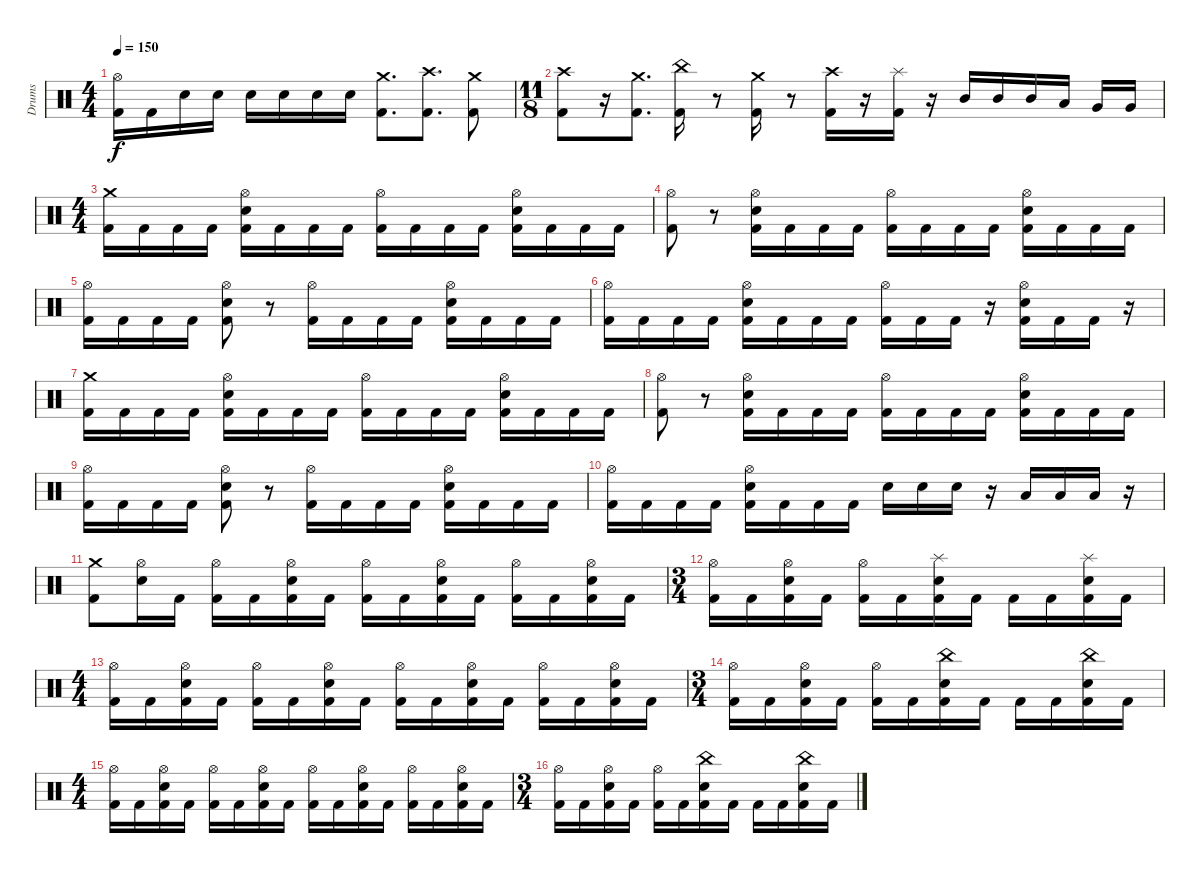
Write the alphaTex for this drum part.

\track ("Drums" "Drums") {instrument percussion}
\staff {score}
\articulation defaults
\ts (4 4)
\tempo 150
\clef neutral
\ks c
("Hi-Hat (open)" "Kick (hit) 2").16{dy f} "Kick (hit) 2".16 "Electric Snare (hit)".16 "Electric Snare (hit)".16 "Electric Snare (hit)".16 "Electric Snare (hit)".16 "Electric Snare (hit)".16 "Electric Snare (hit)".16 ("Crash medium (hit)" "Kick (hit) 2").8{d} ("Crash high (hit)" "Kick (hit) 2").8{d} ("Crash medium (hit)" "Kick (hit) 2").8 |
\ts (11 8)
("Crash high (hit)" "Kick (hit) 2").8 r.16 ("Crash medium (hit)" "Kick (hit) 2").8{d} ("China (hit)" "Kick (hit) 2").16 r.8 ("Crash medium (hit)" "Kick (hit) 2").16 r.8 ("Crash high (hit)" "Kick (hit) 2").16 r.16 ("Splash (hit)" "Kick (hit) 2").16 r.16 "Mid Tom (hit)".16 "Mid Tom (hit)".16 "Mid Tom (hit)".16 "Low Tom (hit)".16 "Very Low Tom (hit)".16 "Very Low Tom (hit)".16 |
\ts (4 4)
("Crash medium (hit)" "Kick (hit) 2").16 "Kick (hit) 2".16 "Kick (hit) 2".16 "Kick (hit) 2".16 ("Hi-Hat (open)" "Electric Snare (hit)" "Kick (hit) 2").16 "Kick (hit) 2".16 "Kick (hit) 2".16 "Kick (hit) 2".16 ("Hi-Hat (open)" "Kick (hit) 2").16 "Kick (hit) 2".16 "Kick (hit) 2".16 "Kick (hit) 2".16 ("Hi-Hat (open)" "Electric Snare (hit)" "Kick (hit) 2").16 "Kick (hit) 2".16 "Kick (hit) 2".16 "Kick (hit) 2".16 |
("Hi-Hat (open)" "Kick (hit) 2").8 r.8 ("Electric Snare (hit)" "Hi-Hat (open)" "Kick (hit) 2").16 "Kick (hit) 2".16 "Kick (hit) 2".16 "Kick (hit) 2".16 ("Hi-Hat (open)" "Kick (hit) 2").16 "Kick (hit) 2".16 "Kick (hit) 2".16 "Kick (hit) 2".16 ("Electric Snare (hit)" "Hi-Hat (open)" "Kick (hit) 2").16 "Kick (hit) 2".16 "Kick (hit) 2".16 "Kick (hit) 2".16 |
("Hi-Hat (open)" "Kick (hit) 2").16 "Kick (hit) 2".16 "Kick (hit) 2".16 "Kick (hit) 2".16 ("Electric Snare (hit)" "Hi-Hat (open)" "Kick (hit) 2").8 r.8 ("Hi-Hat (open)" "Kick (hit) 2").16 "Kick (hit) 2".16 "Kick (hit) 2".16 "Kick (hit) 2".16 ("Hi-Hat (open)" "Electric Snare (hit)" "Kick (hit) 2").16 "Kick (hit) 2".16 "Kick (hit) 2".16 "Kick (hit) 2".16 |
("Hi-Hat (open)" "Kick (hit) 2").16 "Kick (hit) 2".16 "Kick (hit) 2".16 "Kick (hit) 2".16 ("Hi-Hat (open)" "Electric Snare (hit)" "Kick (hit) 2").16 "Kick (hit) 2".16 "Kick (hit) 2".16 "Kick (hit) 2".16 ("Hi-Hat (open)" "Kick (hit) 2").16 "Kick (hit) 2".16 "Kick (hit) 2".16 r.16 ("Electric Snare (hit)" "Hi-Hat (open)" "Kick (hit) 2").16 "Kick (hit) 2".16 "Kick (hit) 2".16 r.16 |
("Crash medium (hit)" "Kick (hit) 2").16 "Kick (hit) 2".16 "Kick (hit) 2".16 "Kick (hit) 2".16 ("Hi-Hat (open)" "Electric Snare (hit)" "Kick (hit) 2").16 "Kick (hit) 2".16 "Kick (hit) 2".16 "Kick (hit) 2".16 ("Hi-Hat (open)" "Kick (hit) 2").16 "Kick (hit) 2".16 "Kick (hit) 2".16 "Kick (hit) 2".16 ("Hi-Hat (open)" "Electric Snare (hit)" "Kick (hit) 2").16 "Kick (hit) 2".16 "Kick (hit) 2".16 "Kick (hit) 2".16 |
("Hi-Hat (open)" "Kick (hit) 2").8 r.8 ("Electric Snare (hit)" "Hi-Hat (open)" "Kick (hit) 2").16 "Kick (hit) 2".16 "Kick (hit) 2".16 "Kick (hit) 2".16 ("Hi-Hat (open)" "Kick (hit) 2").16 "Kick (hit) 2".16 "Kick (hit) 2".16 "Kick (hit) 2".16 ("Electric Snare (hit)" "Hi-Hat (open)" "Kick (hit) 2").16 "Kick (hit) 2".16 "Kick (hit) 2".16 "Kick (hit) 2".16 |
("Hi-Hat (open)" "Kick (hit) 2").16 "Kick (hit) 2".16 "Kick (hit) 2".16 "Kick (hit) 2".16 ("Electric Snare (hit)" "Hi-Hat (open)" "Kick (hit) 2").8 r.8 ("Hi-Hat (open)" "Kick (hit) 2").16 "Kick (hit) 2".16 "Kick (hit) 2".16 "Kick (hit) 2".16 ("Hi-Hat (open)" "Electric Snare (hit)" "Kick (hit) 2").16 "Kick (hit) 2".16 "Kick (hit) 2".16 "Kick (hit) 2".16 |
("Hi-Hat (open)" "Kick (hit) 2").16 "Kick (hit) 2".16 "Kick (hit) 2".16 "Kick (hit) 2".16 ("Hi-Hat (open)" "Electric Snare (hit)" "Kick (hit) 2").16 "Kick (hit) 2".16 "Kick (hit) 2".16 "Kick (hit) 2".16 "Electric Snare (hit)".16 "Electric Snare (hit)".16 "Electric Snare (hit)".16 r.16 "Low Tom (hit)".16 "Low Tom (hit)".16 "Low Tom (hit)".16 r.16 |
("Crash medium (hit)" "Kick (hit) 2").8 ("Hi-Hat (open)" "Electric Snare (hit)").16 "Kick (hit) 2".16 ("Hi-Hat (open)" "Kick (hit) 2").16 "Kick (hit) 2".16 ("Hi-Hat (open)" "Electric Snare (hit)" "Kick (hit) 2").16 "Kick (hit) 2".16 ("Hi-Hat (open)" "Kick (hit) 2").16 "Kick (hit) 2".16 ("Hi-Hat (open)" "Electric Snare (hit)" "Kick (hit) 2").16 "Kick (hit) 2".16 ("Hi-Hat (open)" "Kick (hit) 2").16 "Kick (hit) 2".16 ("Hi-Hat (open)" "Electric Snare (hit)" "Kick (hit) 2").16 "Kick (hit) 2".16 |
\ts (3 4)
("Hi-Hat (open)" "Kick (hit) 2").16 "Kick (hit) 2".16 ("Hi-Hat (open)" "Electric Snare (hit)" "Kick (hit) 2").16 "Kick (hit) 2".16 ("Hi-Hat (open)" "Kick (hit) 2").16 "Kick (hit) 2".16 ("Splash (hit)" "Electric Snare (hit)" "Kick (hit) 2").16 "Kick (hit) 2".16 "Kick (hit) 2".16 "Kick (hit) 2".16 ("Splash (hit)" "Electric Snare (hit)" "Kick (hit) 2").16 "Kick (hit) 2".16 |
\ts (4 4)
("Hi-Hat (open)" "Kick (hit) 2").16 "Kick (hit) 2".16 ("Kick (hit) 2" "Hi-Hat (open)" "Electric Snare (hit)").16 "Kick (hit) 2".16 ("Hi-Hat (open)" "Kick (hit) 2").16 "Kick (hit) 2".16 ("Hi-Hat (open)" "Electric Snare (hit)" "Kick (hit) 2").16 "Kick (hit) 2".16 ("Hi-Hat (open)" "Kick (hit) 2").16 "Kick (hit) 2".16 ("Hi-Hat (open)" "Electric Snare (hit)" "Kick (hit) 2").16 "Kick (hit) 2".16 ("Hi-Hat (open)" "Kick (hit) 2").16 "Kick (hit) 2".16 ("Hi-Hat (open)" "Electric Snare (hit)" "Kick (hit) 2").16 "Kick (hit) 2".16 |
\ts (3 4)
("Hi-Hat (open)" "Kick (hit) 2").16 "Kick (hit) 2".16 ("Hi-Hat (open)" "Electric Snare (hit)" "Kick (hit) 2").16 "Kick (hit) 2".16 ("Hi-Hat (open)" "Kick (hit) 2").16 "Kick (hit) 2".16 ("China (hit)" "Electric Snare (hit)" "Kick (hit) 2").16 "Kick (hit) 2".16 "Kick (hit) 2".16 "Kick (hit) 2".16 ("China (hit)" "Electric Snare (hit)" "Kick (hit) 2").16 "Kick (hit) 2".16 |
\ts (4 4)
("Hi-Hat (open)" "Kick (hit) 2").16 "Kick (hit) 2".16 ("Kick (hit) 2" "Hi-Hat (open)" "Electric Snare (hit)").16 "Kick (hit) 2".16 ("Hi-Hat (open)" "Kick (hit) 2").16 "Kick (hit) 2".16 ("Hi-Hat (open)" "Electric Snare (hit)" "Kick (hit) 2").16 "Kick (hit) 2".16 ("Hi-Hat (open)" "Kick (hit) 2").16 "Kick (hit) 2".16 ("Hi-Hat (open)" "Electric Snare (hit)" "Kick (hit) 2").16 "Kick (hit) 2".16 ("Hi-Hat (open)" "Kick (hit) 2").16 "Kick (hit) 2".16 ("Hi-Hat (open)" "Electric Snare (hit)" "Kick (hit) 2").16 "Kick (hit) 2".16 |
\ts (3 4)
("Hi-Hat (open)" "Kick (hit) 2").16 "Kick (hit) 2".16 ("Hi-Hat (open)" "Electric Snare (hit)" "Kick (hit) 2").16 "Kick (hit) 2".16 ("Hi-Hat (open)" "Kick (hit) 2").16 "Kick (hit) 2".16 ("China (hit)" "Electric Snare (hit)" "Kick (hit) 2").16 "Kick (hit) 2".16 "Kick (hit) 2".16 "Kick (hit) 2".16 ("China (hit)" "Electric Snare (hit)" "Kick (hit) 2").16 "Kick (hit) 2".16
